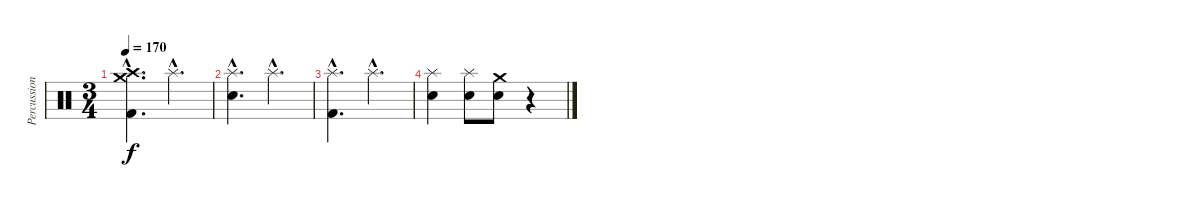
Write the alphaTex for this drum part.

\track ("Percussion" "Percussion") {instrument percussion}
\staff {score}
\articulation defaults
\ts (3 4)
\tempo 170
\clef neutral
\ks c
("Crash medium (hit)"{hac} "Crash high (hit)"{hac} "Kick (hit) 2"{hac}).4{d dy f} "Splash (hit)"{hac}.4{d} |
("Splash (hit)"{hac} "Snare (hit) 2"{hac}).4{d} "Splash (hit)"{hac}.4{d} |
("Splash (hit)"{hac} "Kick (hit) 2"{hac}).4{d} "Splash (hit)"{hac}.4{d} |
("Splash (hit)" "Snare (hit) 2").4 ("Splash (hit)" "Snare (hit) 2").8 ("Crash medium (hit)" "Snare (hit) 2").8 r.4
